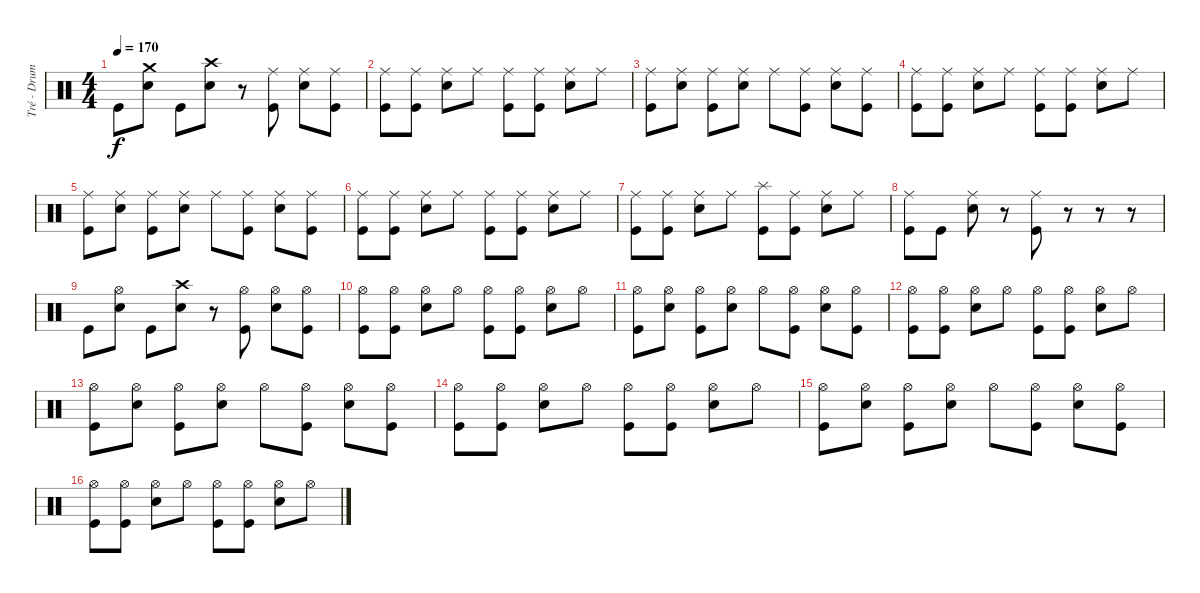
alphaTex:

\track ("Tré - Drums" "Tré - Drum") {instrument percussion}
\staff {score}
\articulation defaults
\ts (4 4)
\tempo 170
\clef neutral
\ks c "Kick (hit)".8{dy f}
("Crash medium (hit)" "Electric Snare (hit)").8 "Kick (hit)".8 ("Crash high (hit)" "Electric Snare (hit)").8 r.8 ("Ride (middle)" "Kick (hit)").8 ("Ride (middle)" "Electric Snare (hit)").8 ("Ride (middle)" "Kick (hit)").8 |
("Ride (middle)" "Kick (hit)").8 ("Ride (middle)" "Kick (hit)").8 ("Ride (middle)" "Electric Snare (hit)").8 "Ride (middle)".8 ("Ride (middle)" "Kick (hit)").8 ("Ride (middle)" "Kick (hit)").8 ("Ride (middle)" "Electric Snare (hit)").8 "Ride (middle)".8 |
("Ride (middle)" "Kick (hit)").8 ("Ride (middle)" "Electric Snare (hit)").8 ("Ride (middle)" "Kick (hit)").8 ("Ride (middle)" "Electric Snare (hit)").8 "Ride (middle)".8 ("Ride (middle)" "Kick (hit)").8 ("Ride (middle)" "Electric Snare (hit)").8 ("Ride (middle)" "Kick (hit)").8 |
("Ride (middle)" "Kick (hit)").8 ("Ride (middle)" "Kick (hit)").8 ("Ride (middle)" "Electric Snare (hit)").8 "Ride (middle)".8 ("Ride (middle)" "Kick (hit)").8 ("Ride (middle)" "Kick (hit)").8 ("Ride (middle)" "Electric Snare (hit)").8 "Ride (middle)".8 |
("Ride (middle)" "Kick (hit)").8 ("Ride (middle)" "Electric Snare (hit)").8 ("Ride (middle)" "Kick (hit)").8 ("Ride (middle)" "Electric Snare (hit)").8 "Ride (middle)".8 ("Ride (middle)" "Kick (hit)").8 ("Ride (middle)" "Electric Snare (hit)").8 ("Ride (middle)" "Kick (hit)").8 |
("Ride (middle)" "Kick (hit)").8 ("Ride (middle)" "Kick (hit)").8 ("Ride (middle)" "Electric Snare (hit)").8 "Ride (middle)".8 ("Ride (middle)" "Kick (hit)").8 ("Ride (middle)" "Kick (hit)").8 ("Ride (middle)" "Electric Snare (hit)").8 "Ride (middle)".8 |
("Ride (middle)" "Kick (hit)").8 ("Ride (middle)" "Kick (hit)").8 ("Ride (middle)" "Electric Snare (hit)").8 "Ride (middle)".8 ("Splash (hit)" "Kick (hit)").8 ("Ride (middle)" "Kick (hit)").8 ("Ride (middle)" "Electric Snare (hit)").8 "Ride (middle)".8 |
("Ride (middle)" "Kick (hit)").8 "Kick (hit)".8 ("Ride (middle)" "Electric Snare (hit)").8 r.8 ("Ride (middle)" "Kick (hit)").8 r.8 r.8 r.8 |
"Kick (hit)".8 ("Hi-Hat (open)" "Electric Snare (hit)").8 "Kick (hit)".8 ("Crash high (hit)" "Electric Snare (hit)").8 r.8 ("Hi-Hat (open)" "Kick (hit)").8 ("Hi-Hat (open)" "Electric Snare (hit)").8 ("Hi-Hat (open)" "Kick (hit)").8 |
("Hi-Hat (open)" "Kick (hit)").8 ("Hi-Hat (open)" "Kick (hit)").8 ("Hi-Hat (open)" "Electric Snare (hit)").8 "Hi-Hat (open)".8 ("Hi-Hat (open)" "Kick (hit)").8 ("Hi-Hat (open)" "Kick (hit)").8 ("Hi-Hat (open)" "Electric Snare (hit)").8 "Hi-Hat (open)".8 |
("Hi-Hat (open)" "Kick (hit)").8 ("Hi-Hat (open)" "Electric Snare (hit)").8 ("Hi-Hat (open)" "Kick (hit)").8 ("Hi-Hat (open)" "Electric Snare (hit)").8 "Hi-Hat (open)".8 ("Hi-Hat (open)" "Kick (hit)").8 ("Hi-Hat (open)" "Electric Snare (hit)").8 ("Hi-Hat (open)" "Kick (hit)").8 |
("Hi-Hat (open)" "Kick (hit)").8 ("Hi-Hat (open)" "Kick (hit)").8 ("Hi-Hat (open)" "Electric Snare (hit)").8 "Hi-Hat (open)".8 ("Hi-Hat (open)" "Kick (hit)").8 ("Hi-Hat (open)" "Kick (hit)").8 ("Hi-Hat (open)" "Electric Snare (hit)").8 "Hi-Hat (open)".8 |
("Hi-Hat (open)" "Kick (hit)").8 ("Hi-Hat (open)" "Electric Snare (hit)").8 ("Hi-Hat (open)" "Kick (hit)").8 ("Hi-Hat (open)" "Electric Snare (hit)").8 "Hi-Hat (open)".8 ("Hi-Hat (open)" "Kick (hit)").8 ("Hi-Hat (open)" "Electric Snare (hit)").8 ("Hi-Hat (open)" "Kick (hit)").8 |
("Hi-Hat (open)" "Kick (hit)").8 ("Hi-Hat (open)" "Kick (hit)").8 ("Hi-Hat (open)" "Electric Snare (hit)").8 "Hi-Hat (open)".8 ("Hi-Hat (open)" "Kick (hit)").8 ("Hi-Hat (open)" "Kick (hit)").8 ("Hi-Hat (open)" "Electric Snare (hit)").8 "Hi-Hat (open)".8 |
("Hi-Hat (open)" "Kick (hit)").8 ("Hi-Hat (open)" "Electric Snare (hit)").8 ("Hi-Hat (open)" "Kick (hit)").8 ("Hi-Hat (open)" "Electric Snare (hit)").8 "Hi-Hat (open)".8 ("Hi-Hat (open)" "Kick (hit)").8 ("Hi-Hat (open)" "Electric Snare (hit)").8 ("Hi-Hat (open)" "Kick (hit)").8 |
("Hi-Hat (open)" "Kick (hit)").8 ("Hi-Hat (open)" "Kick (hit)").8 ("Hi-Hat (open)" "Electric Snare (hit)").8 "Hi-Hat (open)".8 ("Hi-Hat (open)" "Kick (hit)").8 ("Hi-Hat (open)" "Kick (hit)").8 ("Hi-Hat (open)" "Electric Snare (hit)").8 "Hi-Hat (open)".8
